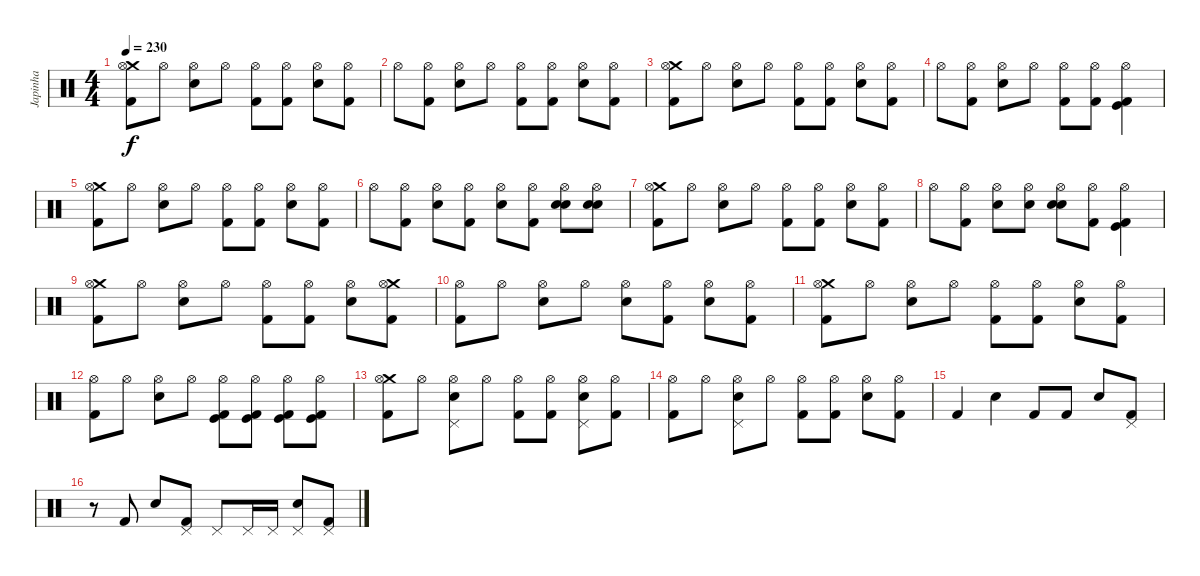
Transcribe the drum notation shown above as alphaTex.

\track ("Japinha" "Japinha") {instrument percussion}
\staff {score}
\articulation defaults
\ts (4 4)
\tempo 230
\clef neutral
\ks c
("Crash medium (hit)" "Hi-Hat (open)" "Kick (hit) 2").8{dy f} "Hi-Hat (open)".8 ("Hi-Hat (open)" "Snare (hit) 2").8 "Hi-Hat (open)".8 ("Hi-Hat (open)" "Kick (hit) 2").8 ("Hi-Hat (open)" "Kick (hit) 2").8 ("Hi-Hat (open)" "Snare (hit) 2").8 ("Hi-Hat (open)" "Kick (hit) 2").8 |
"Hi-Hat (open)".8 ("Hi-Hat (open)" "Kick (hit) 2").8 ("Hi-Hat (open)" "Snare (hit) 2").8 "Hi-Hat (open)".8 ("Hi-Hat (open)" "Kick (hit) 2").8 ("Hi-Hat (open)" "Kick (hit) 2").8 ("Hi-Hat (open)" "Snare (hit) 2").8 ("Hi-Hat (open)" "Kick (hit) 2").8 |
("Crash medium (hit)" "Hi-Hat (open)" "Kick (hit) 2").8 "Hi-Hat (open)".8 ("Hi-Hat (open)" "Snare (hit) 2").8 "Hi-Hat (open)".8 ("Hi-Hat (open)" "Kick (hit) 2").8 ("Hi-Hat (open)" "Kick (hit) 2").8 ("Hi-Hat (open)" "Snare (hit) 2").8 ("Hi-Hat (open)" "Kick (hit) 2").8 |
"Hi-Hat (open)".8 ("Hi-Hat (open)" "Kick (hit) 2").8 ("Hi-Hat (open)" "Snare (hit) 2").8 "Hi-Hat (open)".8 ("Hi-Hat (open)" "Kick (hit) 2").8 ("Hi-Hat (open)" "Kick (hit) 2").8 ("Hi-Hat (open)" "Kick (hit) 2" "Kick (hit)").4 |
("Crash medium (hit)" "Hi-Hat (open)" "Kick (hit) 2").8 "Hi-Hat (open)".8 ("Hi-Hat (open)" "Snare (hit) 2").8 "Hi-Hat (open)".8 ("Hi-Hat (open)" "Kick (hit) 2").8 ("Hi-Hat (open)" "Kick (hit) 2").8 ("Hi-Hat (open)" "Snare (hit) 2").8 ("Hi-Hat (open)" "Kick (hit) 2").8 |
"Hi-Hat (open)".8 ("Hi-Hat (open)" "Kick (hit) 2").8 ("Hi-Hat (open)" "Snare (hit) 2").8 ("Hi-Hat (open)" "Kick (hit) 2").8 ("Hi-Hat (open)" "Snare (hit) 2").8 ("Hi-Hat (open)" "Kick (hit) 2").8 ("Hi-Hat (open)" "Snare (hit) 2" "Electric Snare (hit)").8 ("Hi-Hat (open)" "Snare (hit) 2" "Electric Snare (hit)").8 |
("Crash medium (hit)" "Hi-Hat (open)" "Kick (hit) 2").8 "Hi-Hat (open)".8 ("Hi-Hat (open)" "Snare (hit) 2").8 "Hi-Hat (open)".8 ("Hi-Hat (open)" "Kick (hit) 2").8 ("Hi-Hat (open)" "Kick (hit) 2").8 ("Hi-Hat (open)" "Snare (hit) 2").8 ("Hi-Hat (open)" "Kick (hit) 2").8 |
"Hi-Hat (open)".8 ("Hi-Hat (open)" "Kick (hit) 2").8 ("Hi-Hat (open)" "Snare (hit) 2").8 ("Hi-Hat (open)" "Snare (hit) 2").8 ("Hi-Hat (open)" "Snare (hit) 2" "Electric Snare (hit)").8 ("Hi-Hat (open)" "Kick (hit) 2").8 ("Hi-Hat (open)" "Kick (hit) 2" "Kick (hit)").4 |
("Crash medium (hit)" "Hi-Hat (open)" "Kick (hit) 2").8 "Hi-Hat (open)".8 ("Hi-Hat (open)" "Snare (hit) 2").8 "Hi-Hat (open)".8 ("Hi-Hat (open)" "Kick (hit) 2").8 ("Hi-Hat (open)" "Kick (hit) 2").8 ("Hi-Hat (open)" "Snare (hit) 2").8 ("Crash medium (hit)" "Hi-Hat (open)" "Kick (hit) 2").8 |
("Hi-Hat (open)" "Kick (hit) 2").8 "Hi-Hat (open)".8 ("Hi-Hat (open)" "Snare (hit) 2").8 "Hi-Hat (open)".8 ("Hi-Hat (open)" "Snare (hit) 2").8 ("Hi-Hat (open)" "Kick (hit) 2").8 ("Hi-Hat (open)" "Snare (hit) 2").8 ("Hi-Hat (open)" "Kick (hit) 2").8 |
("Crash medium (hit)" "Hi-Hat (open)" "Kick (hit) 2").8 "Hi-Hat (open)".8 ("Hi-Hat (open)" "Snare (hit) 2").8 "Hi-Hat (open)".8 ("Hi-Hat (open)" "Kick (hit) 2").8 ("Hi-Hat (open)" "Kick (hit) 2").8 ("Hi-Hat (open)" "Snare (hit) 2").8 ("Hi-Hat (open)" "Kick (hit) 2").8 |
("Hi-Hat (open)" "Kick (hit) 2").8 "Hi-Hat (open)".8 ("Hi-Hat (open)" "Snare (hit) 2").8 "Hi-Hat (open)".8 ("Hi-Hat (open)" "Kick (hit) 2" "Kick (hit)").8 ("Hi-Hat (open)" "Kick (hit) 2" "Kick (hit)").8 ("Hi-Hat (open)" "Kick (hit) 2" "Kick (hit)").8 ("Hi-Hat (open)" "Kick (hit) 2" "Kick (hit)").8 |
("Crash medium (hit)" "Hi-Hat (open)" "Kick (hit) 2").8 "Hi-Hat (open)".8 ("Pedal Hi-Hat (hit)" "Hi-Hat (open)" "Snare (hit) 2").8 "Hi-Hat (open)".8 ("Hi-Hat (open)" "Kick (hit) 2").8 ("Hi-Hat (open)" "Kick (hit) 2").8 ("Pedal Hi-Hat (hit)" "Hi-Hat (open)" "Snare (hit) 2").8 ("Hi-Hat (open)" "Kick (hit) 2").8 |
("Hi-Hat (open)" "Kick (hit) 2").8 "Hi-Hat (open)".8 ("Pedal Hi-Hat (hit)" "Hi-Hat (open)" "Snare (hit) 2").8 "Hi-Hat (open)".8 ("Hi-Hat (open)" "Kick (hit) 2").8 ("Hi-Hat (open)" "Kick (hit) 2").8 ("Hi-Hat (open)" "Snare (hit) 2").8 ("Hi-Hat (open)" "Kick (hit) 2").8 |
"Kick (hit) 2".4 "Snare (hit) 2".4 "Kick (hit) 2".8 "Kick (hit) 2".8 "Snare (hit) 2".8 ("Pedal Hi-Hat (hit)" "Kick (hit) 2").8 |
r.8 "Kick (hit) 2".8 "Snare (hit) 2".8 ("Pedal Hi-Hat (hit)" "Kick (hit) 2").8 "Pedal Hi-Hat (hit)".8 "Pedal Hi-Hat (hit)".16 "Pedal Hi-Hat (hit)".16 ("Pedal Hi-Hat (hit)" "Snare (hit) 2").8 ("Pedal Hi-Hat (hit)" "Kick (hit) 2").8
